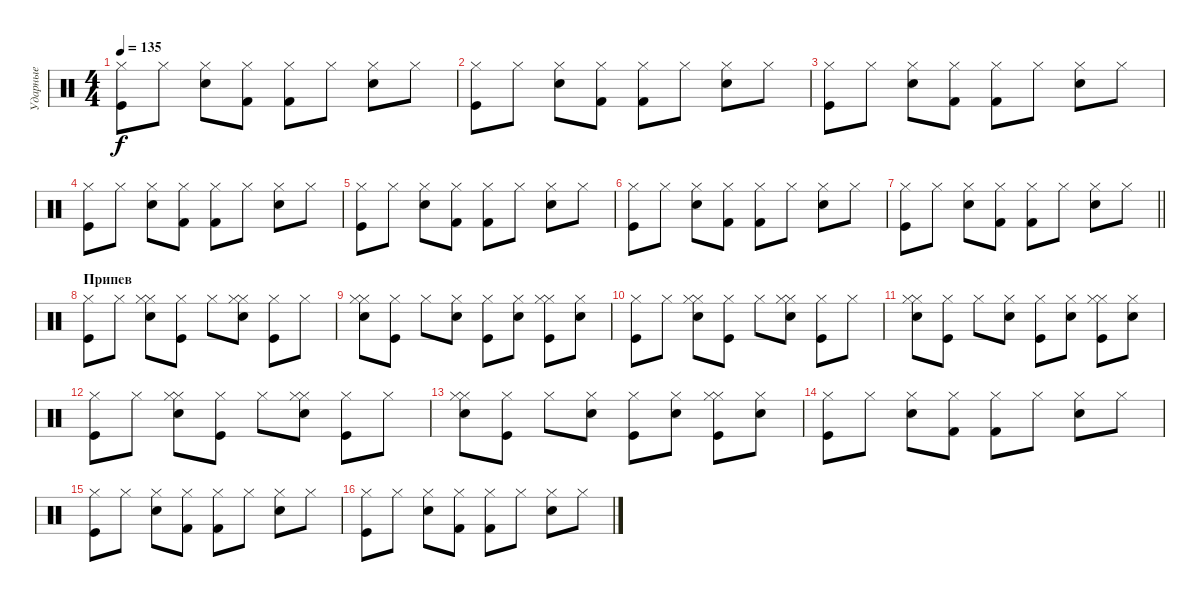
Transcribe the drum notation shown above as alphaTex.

\track ("Ударные" "Ударные") {instrument percussion}
\staff {score}
\articulation defaults
\ts (4 4)
\tempo 135
\clef neutral
\ks c
("Kick (hit)" "Hi-Hat (closed)").8{dy f} "Hi-Hat (closed)".8 ("Snare (hit) 2" "Hi-Hat (closed)").8 ("Hi-Hat (closed)" "Kick (hit) 2").8 ("Hi-Hat (closed)" "Kick (hit) 2").8 "Hi-Hat (closed)".8 ("Hi-Hat (closed)" "Snare (hit) 2").8 "Hi-Hat (closed)".8 |
("Kick (hit)" "Hi-Hat (closed)").8 "Hi-Hat (closed)".8 ("Snare (hit) 2" "Hi-Hat (closed)").8 ("Hi-Hat (closed)" "Kick (hit) 2").8 ("Hi-Hat (closed)" "Kick (hit) 2").8 "Hi-Hat (closed)".8 ("Hi-Hat (closed)" "Snare (hit) 2").8 "Hi-Hat (closed)".8 |
("Kick (hit)" "Hi-Hat (closed)").8 "Hi-Hat (closed)".8 ("Snare (hit) 2" "Hi-Hat (closed)").8 ("Hi-Hat (closed)" "Kick (hit) 2").8 ("Hi-Hat (closed)" "Kick (hit) 2").8 "Hi-Hat (closed)".8 ("Hi-Hat (closed)" "Snare (hit) 2").8 "Hi-Hat (closed)".8 |
("Kick (hit)" "Hi-Hat (closed)").8 "Hi-Hat (closed)".8 ("Snare (hit) 2" "Hi-Hat (closed)").8 ("Hi-Hat (closed)" "Kick (hit) 2").8 ("Hi-Hat (closed)" "Kick (hit) 2").8 "Hi-Hat (closed)".8 ("Hi-Hat (closed)" "Snare (hit) 2").8 "Hi-Hat (closed)".8 |
("Kick (hit)" "Hi-Hat (closed)").8 "Hi-Hat (closed)".8 ("Snare (hit) 2" "Hi-Hat (closed)").8 ("Hi-Hat (closed)" "Kick (hit) 2").8 ("Hi-Hat (closed)" "Kick (hit) 2").8 "Hi-Hat (closed)".8 ("Hi-Hat (closed)" "Snare (hit) 2").8 "Hi-Hat (closed)".8 |
("Kick (hit)" "Hi-Hat (closed)").8 "Hi-Hat (closed)".8 ("Snare (hit) 2" "Hi-Hat (closed)").8 ("Hi-Hat (closed)" "Kick (hit) 2").8 ("Hi-Hat (closed)" "Kick (hit) 2").8 "Hi-Hat (closed)".8 ("Hi-Hat (closed)" "Snare (hit) 2").8 "Hi-Hat (closed)".8 |
\barLineRight lightlight
("Kick (hit)" "Hi-Hat (closed)").8 "Hi-Hat (closed)".8 ("Snare (hit) 2" "Hi-Hat (closed)").8 ("Hi-Hat (closed)" "Kick (hit) 2").8 ("Hi-Hat (closed)" "Kick (hit) 2").8 "Hi-Hat (closed)".8 ("Hi-Hat (closed)" "Snare (hit) 2").8 "Hi-Hat (closed)".8 |
\section ("" "Припев")
("Hi-Hat (closed)" "Kick (hit)").8 "Hi-Hat (closed)".8 ("Snare (hit) 2" "Hi-Hat (closed)" "Hi-Hat (closed)").8 ("Hi-Hat (closed)" "Kick (hit)").8 "Hi-Hat (closed)".8 ("Snare (hit) 2" "Hi-Hat (closed)" "Hi-Hat (closed)").8 ("Hi-Hat (closed)" "Kick (hit)").8 "Hi-Hat (closed)".8 |
("Snare (hit) 2" "Hi-Hat (closed)" "Hi-Hat (closed)").8 ("Hi-Hat (closed)" "Kick (hit)").8 "Hi-Hat (closed)".8 ("Hi-Hat (closed)" "Snare (hit) 2").8 ("Hi-Hat (closed)" "Kick (hit)").8 ("Hi-Hat (closed)" "Snare (hit) 2").8 ("Kick (hit)" "Hi-Hat (closed)" "Hi-Hat (closed)").8 ("Snare (hit) 2" "Hi-Hat (closed)").8 |
("Hi-Hat (closed)" "Kick (hit)").8 "Hi-Hat (closed)".8 ("Snare (hit) 2" "Hi-Hat (closed)" "Hi-Hat (closed)").8 ("Hi-Hat (closed)" "Kick (hit)").8 "Hi-Hat (closed)".8 ("Snare (hit) 2" "Hi-Hat (closed)" "Hi-Hat (closed)").8 ("Hi-Hat (closed)" "Kick (hit)").8 "Hi-Hat (closed)".8 |
("Snare (hit) 2" "Hi-Hat (closed)" "Hi-Hat (closed)").8 ("Hi-Hat (closed)" "Kick (hit)").8 "Hi-Hat (closed)".8 ("Hi-Hat (closed)" "Snare (hit) 2").8 ("Hi-Hat (closed)" "Kick (hit)").8 ("Hi-Hat (closed)" "Snare (hit) 2").8 ("Kick (hit)" "Hi-Hat (closed)" "Hi-Hat (closed)").8 ("Snare (hit) 2" "Hi-Hat (closed)").8 |
("Hi-Hat (closed)" "Kick (hit)").8 "Hi-Hat (closed)".8 ("Snare (hit) 2" "Hi-Hat (closed)" "Hi-Hat (closed)").8 ("Hi-Hat (closed)" "Kick (hit)").8 "Hi-Hat (closed)".8 ("Snare (hit) 2" "Hi-Hat (closed)" "Hi-Hat (closed)").8 ("Hi-Hat (closed)" "Kick (hit)").8 "Hi-Hat (closed)".8 |
("Snare (hit) 2" "Hi-Hat (closed)" "Hi-Hat (closed)").8 ("Hi-Hat (closed)" "Kick (hit)").8 "Hi-Hat (closed)".8 ("Hi-Hat (closed)" "Snare (hit) 2").8 ("Hi-Hat (closed)" "Kick (hit)").8 ("Hi-Hat (closed)" "Snare (hit) 2").8 ("Kick (hit)" "Hi-Hat (closed)" "Hi-Hat (closed)").8 ("Snare (hit) 2" "Hi-Hat (closed)").8 |
("Kick (hit)" "Hi-Hat (closed)").8 "Hi-Hat (closed)".8 ("Snare (hit) 2" "Hi-Hat (closed)").8 ("Hi-Hat (closed)" "Kick (hit) 2").8 ("Hi-Hat (closed)" "Kick (hit) 2").8 "Hi-Hat (closed)".8 ("Hi-Hat (closed)" "Snare (hit) 2").8 "Hi-Hat (closed)".8 |
("Kick (hit)" "Hi-Hat (closed)").8 "Hi-Hat (closed)".8 ("Snare (hit) 2" "Hi-Hat (closed)").8 ("Hi-Hat (closed)" "Kick (hit) 2").8 ("Hi-Hat (closed)" "Kick (hit) 2").8 "Hi-Hat (closed)".8 ("Hi-Hat (closed)" "Snare (hit) 2").8 "Hi-Hat (closed)".8 |
("Kick (hit)" "Hi-Hat (closed)").8 "Hi-Hat (closed)".8 ("Snare (hit) 2" "Hi-Hat (closed)").8 ("Hi-Hat (closed)" "Kick (hit) 2").8 ("Hi-Hat (closed)" "Kick (hit) 2").8 "Hi-Hat (closed)".8 ("Hi-Hat (closed)" "Snare (hit) 2").8 "Hi-Hat (closed)".8
